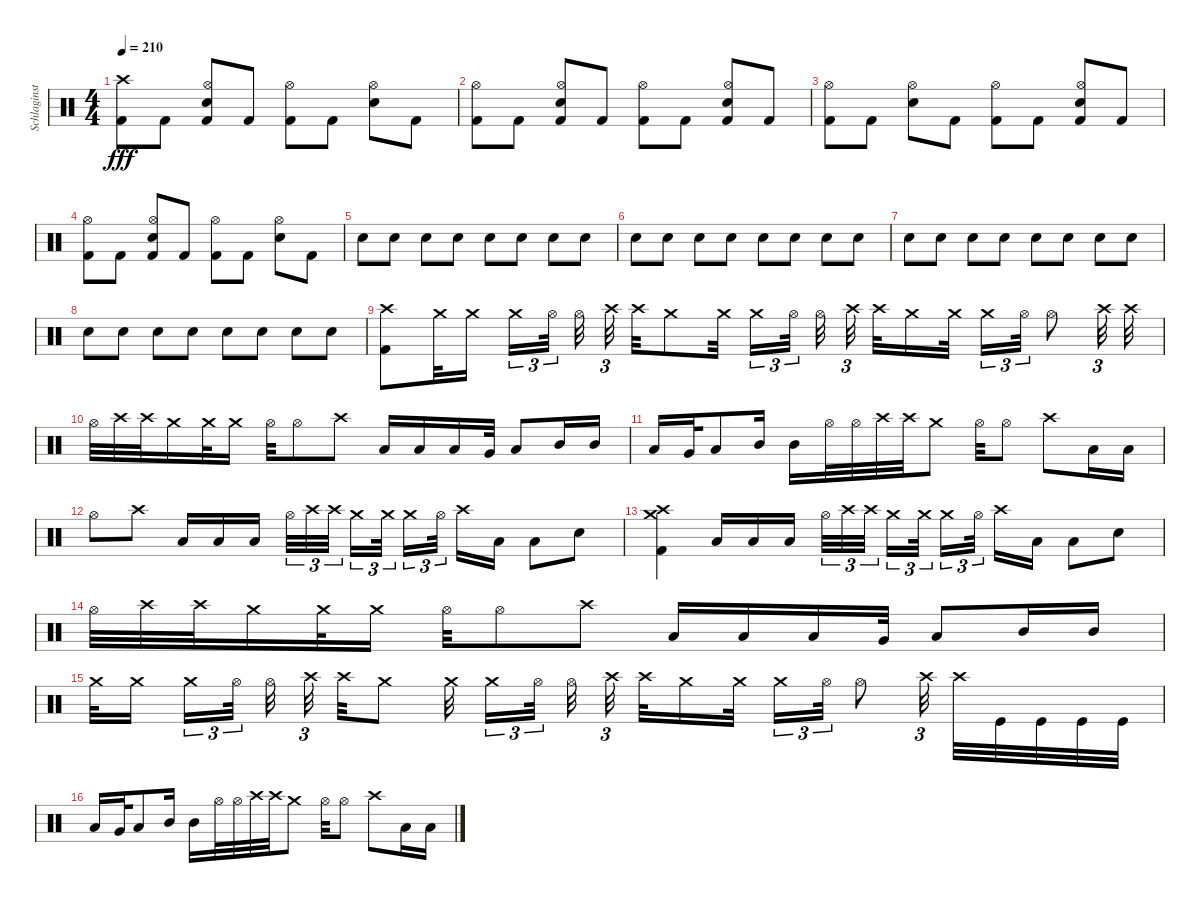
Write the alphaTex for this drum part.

\track ("Schlaginstrumente - Auswahl" "Schlaginst") {instrument percussion}
\staff {score}
\articulation defaults
\ts (4 4)
\tempo 210
\clef neutral
\ks c
("Crash high (hit)" "Kick (hit) 2").8{dy fff} "Kick (hit) 2".8 ("Hi-Hat (open)" "Electric Snare (hit)" "Kick (hit) 2").8 "Kick (hit) 2".8 ("Hi-Hat (open)" "Kick (hit) 2").8 "Kick (hit) 2".8 ("Hi-Hat (open)" "Electric Snare (hit)").8 "Kick (hit) 2".8 |
("Hi-Hat (open)" "Kick (hit) 2").8 "Kick (hit) 2".8 ("Hi-Hat (open)" "Electric Snare (hit)" "Kick (hit) 2").8 "Kick (hit) 2".8 ("Hi-Hat (open)" "Kick (hit) 2").8 "Kick (hit) 2".8 ("Hi-Hat (open)" "Electric Snare (hit)" "Kick (hit) 2").8 "Kick (hit) 2".8 |
("Hi-Hat (open)" "Kick (hit) 2").8 "Kick (hit) 2".8 ("Hi-Hat (open)" "Electric Snare (hit)").8 "Kick (hit) 2".8 ("Hi-Hat (open)" "Kick (hit) 2").8 "Kick (hit) 2".8 ("Hi-Hat (open)" "Electric Snare (hit)" "Kick (hit) 2").8 "Kick (hit) 2".8 |
("Hi-Hat (open)" "Kick (hit) 2").8 "Kick (hit) 2".8 ("Hi-Hat (open)" "Electric Snare (hit)" "Kick (hit) 2").8 "Kick (hit) 2".8 ("Hi-Hat (open)" "Kick (hit) 2").8 "Kick (hit) 2".8 ("Hi-Hat (open)" "Electric Snare (hit)").8 "Kick (hit) 2".8 |
"Electric Snare (hit)".8 "Electric Snare (hit)".8 "Electric Snare (hit)".8 "Electric Snare (hit)".8 "Electric Snare (hit)".8 "Electric Snare (hit)".8 "Electric Snare (hit)".8 "Electric Snare (hit)".8 |
"Electric Snare (hit)".8 "Electric Snare (hit)".8 "Electric Snare (hit)".8 "Electric Snare (hit)".8 "Electric Snare (hit)".8 "Electric Snare (hit)".8 "Electric Snare (hit)".8 "Electric Snare (hit)".8 |
"Electric Snare (hit)".8 "Electric Snare (hit)".8 "Electric Snare (hit)".8 "Electric Snare (hit)".8 "Electric Snare (hit)".8 "Electric Snare (hit)".8 "Electric Snare (hit)".8 "Electric Snare (hit)".8 |
"Electric Snare (hit)".8 "Electric Snare (hit)".8 "Electric Snare (hit)".8 "Electric Snare (hit)".8 "Electric Snare (hit)".8 "Electric Snare (hit)".8 "Electric Snare (hit)".8 "Electric Snare (hit)".8 |
("Crash high (hit)" "Kick (hit) 2").8 "Crash medium (hit)".32 "Crash medium (hit)".16 "Crash medium (hit)".16{tu (3 2)} "Hi-Hat (open)".32{tu (3 2)} "Hi-Hat (open)".32 "Crash high (hit)".32{tu (3 2)} "Crash high (hit)".32 "Crash medium (hit)".8 "Crash medium (hit)".32 "Crash medium (hit)".16{tu (3 2)} "Hi-Hat (open)".32{tu (3 2)} "Hi-Hat (open)".32 "Crash high (hit)".32{tu (3 2)} "Crash high (hit)".32 "Crash medium (hit)".16 "Crash medium (hit)".32 "Crash medium (hit)".16{tu (3 2)} "Hi-Hat (open)".32{tu (3 2)} "Hi-Hat (open)".8 "Crash high (hit)".32{tu (3 2)} "Crash high (hit)".32 |
"Hi-Hat (open)".32 "Crash high (hit)".32 "Crash high (hit)".32 "Crash medium (hit)".16 "Crash medium (hit)".32 "Crash medium (hit)".16 "Hi-Hat (open)".32 "Hi-Hat (open)".8 "Crash high (hit)".8 "Low Tom (hit)".16 "Low Tom (hit)".16 "Low Tom (hit)".16 "Very Low Tom (hit)".32 "Low Floor Tom (hit)".8 "Mid Tom (hit)".16 "Mid Tom (hit)".16 |
"Low Tom (hit)".16 "Very Low Tom (hit)".32 "Low Floor Tom (hit)".8 "Mid Tom (hit)".16 "Mid Tom (hit)".16 "Hi-Hat (open)".32 "Hi-Hat (open)".32 "Crash high (hit)".32 "Crash high (hit)".32 "Crash medium (hit)".8 "Hi-Hat (open)".32 "Hi-Hat (open)".8 "Crash high (hit)".8 "Low Tom (hit)".16 "Low Tom (hit)".16 |
"Hi-Hat (open)".8 "Crash high (hit)".8 "Low Tom (hit)".16 "Low Tom (hit)".16 "Low Tom (hit)".16 "Hi-Hat (open)".32{tu (3 2)} "Crash high (hit)".32{tu (3 2)} "Crash high (hit)".32{tu (3 2)} "Crash medium (hit)".16{tu (3 2)} "Crash medium (hit)".32{tu (3 2)} "Crash medium (hit)".16{tu (3 2)} "Hi-Hat (open)".32{tu (3 2)} "Crash high (hit)".16 "Low Tom (hit)".16 "Low Tom (hit)".8 "Electric Snare (hit)".8 |
("Crash high (hit)" "Crash medium (hit)" "Kick (hit) 2").4 "Low Tom (hit)".16 "Low Tom (hit)".16 "Low Tom (hit)".16 "Hi-Hat (open)".32{tu (3 2)} "Crash high (hit)".32{tu (3 2)} "Crash high (hit)".32{tu (3 2)} "Crash medium (hit)".16{tu (3 2)} "Crash medium (hit)".32{tu (3 2)} "Crash medium (hit)".16{tu (3 2)} "Hi-Hat (open)".32{tu (3 2)} "Crash high (hit)".16 "Low Tom (hit)".16 "Low Tom (hit)".8 "Electric Snare (hit)".8 |
"Hi-Hat (open)".32 "Crash high (hit)".32 "Crash high (hit)".32 "Crash medium (hit)".16 "Crash medium (hit)".32 "Crash medium (hit)".16 "Hi-Hat (open)".32 "Hi-Hat (open)".8 "Crash high (hit)".8 "Low Tom (hit)".16 "Low Tom (hit)".16 "Low Tom (hit)".16 "Very Low Tom (hit)".32 "Low Floor Tom (hit)".8 "Mid Tom (hit)".16 "Mid Tom (hit)".16 |
"Crash medium (hit)".32 "Crash medium (hit)".16 "Crash medium (hit)".16{tu (3 2)} "Hi-Hat (open)".32{tu (3 2)} "Hi-Hat (open)".32 "Crash high (hit)".32{tu (3 2)} "Crash high (hit)".32 "Crash medium (hit)".8 "Crash medium (hit)".32 "Crash medium (hit)".16{tu (3 2)} "Hi-Hat (open)".32{tu (3 2)} "Hi-Hat (open)".32 "Crash high (hit)".32{tu (3 2)} "Crash high (hit)".32 "Crash medium (hit)".16 "Crash medium (hit)".32 "Crash medium (hit)".16{tu (3 2)} "Hi-Hat (open)".32{tu (3 2)} "Hi-Hat (open)".8 "Crash high (hit)".32{tu (3 2)} "Crash high (hit)".32 "Kick (hit)".32 "Kick (hit)".32 "Kick (hit)".32 "Kick (hit)".32 |
"Low Tom (hit)".16 "Very Low Tom (hit)".32 "Low Floor Tom (hit)".8 "Mid Tom (hit)".16 "Mid Tom (hit)".16 "Hi-Hat (open)".32 "Hi-Hat (open)".32 "Crash high (hit)".32 "Crash high (hit)".32 "Crash medium (hit)".8 "Hi-Hat (open)".32 "Hi-Hat (open)".8 "Crash high (hit)".8 "Low Tom (hit)".16 "Low Tom (hit)".16
